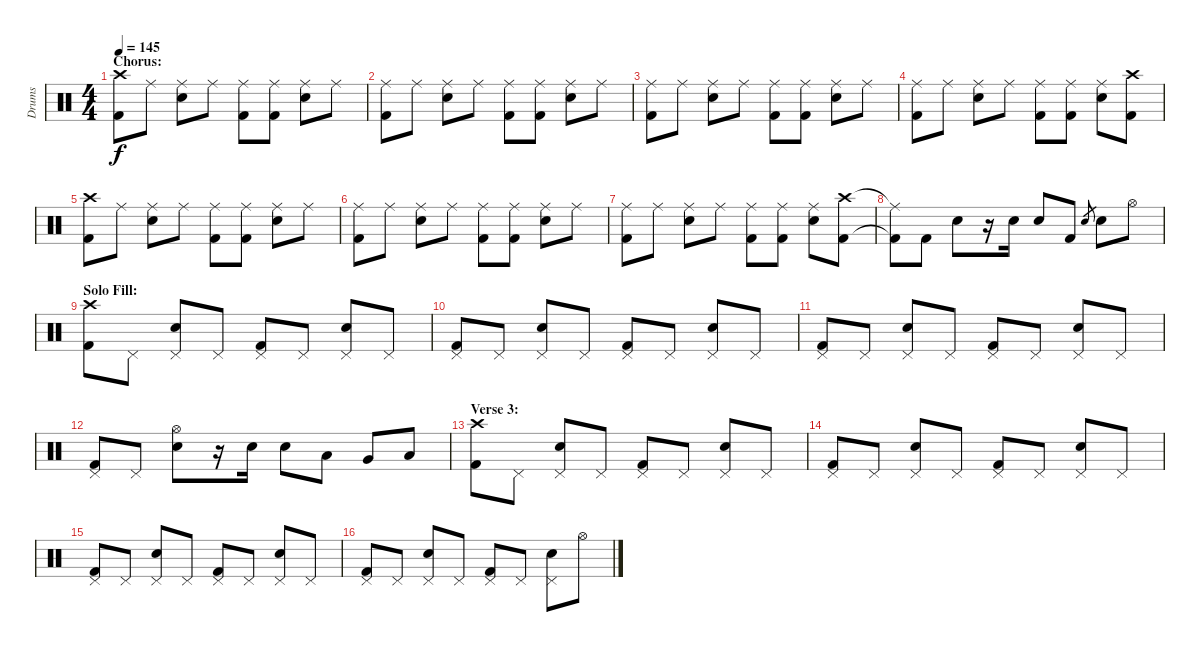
\track ("Drums" "Drums") {instrument percussion}
\staff {score}
\articulation defaults
\ts (4 4)
\section ("" "Chorus:")
\tempo 145
\clef neutral
\ks c
("Crash high (hit)" "Kick (hit) 2").8{dy f} "Ride (middle)".8 ("Ride (middle)" "Electric Snare (hit)").8 "Ride (middle)".8 ("Ride (middle)" "Kick (hit) 2").8 ("Ride (middle)" "Kick (hit) 2").8 ("Ride (middle)" "Electric Snare (hit)").8 "Ride (middle)".8 |
("Ride (middle)" "Kick (hit) 2").8 "Ride (middle)".8 ("Ride (middle)" "Electric Snare (hit)").8 "Ride (middle)".8 ("Ride (middle)" "Kick (hit) 2").8 ("Ride (middle)" "Kick (hit) 2").8 ("Ride (middle)" "Electric Snare (hit)").8 "Ride (middle)".8 |
("Ride (middle)" "Kick (hit) 2").8 "Ride (middle)".8 ("Ride (middle)" "Electric Snare (hit)").8 "Ride (middle)".8 ("Ride (middle)" "Kick (hit) 2").8 ("Ride (middle)" "Kick (hit) 2").8 ("Ride (middle)" "Electric Snare (hit)").8 "Ride (middle)".8 |
("Ride (middle)" "Kick (hit) 2").8 "Ride (middle)".8 ("Ride (middle)" "Electric Snare (hit)").8 "Ride (middle)".8 ("Ride (middle)" "Kick (hit) 2").8 ("Ride (middle)" "Kick (hit) 2").8 ("Ride (middle)" "Electric Snare (hit)").8 ("Crash high (hit)" "Kick (hit) 2").8 |
("Crash high (hit)" "Kick (hit) 2").8 "Ride (middle)".8 ("Ride (middle)" "Electric Snare (hit)").8 "Ride (middle)".8 ("Ride (middle)" "Kick (hit) 2").8 ("Ride (middle)" "Kick (hit) 2").8 ("Ride (middle)" "Electric Snare (hit)").8 "Ride (middle)".8 |
("Ride (middle)" "Kick (hit) 2").8 "Ride (middle)".8 ("Ride (middle)" "Electric Snare (hit)").8 "Ride (middle)".8 ("Ride (middle)" "Kick (hit) 2").8 ("Ride (middle)" "Kick (hit) 2").8 ("Ride (middle)" "Electric Snare (hit)").8 "Ride (middle)".8 |
("Ride (middle)" "Kick (hit) 2").8 "Ride (middle)".8 ("Ride (middle)" "Electric Snare (hit)").8 "Ride (middle)".8 ("Ride (middle)" "Kick (hit) 2").8 ("Ride (middle)" "Kick (hit) 2").8 ("Ride (middle)" "Electric Snare (hit)").8 ("Crash high (hit)" "Kick (hit) 2").8 |
("Ride (middle)"{t} "Kick (hit) 2"{t}).8 "Kick (hit) 2".8 "Electric Snare (hit)".8 r.16 "Electric Snare (hit)".16 "Electric Snare (hit)".8 "Kick (hit) 2".8 "Electric Snare (hit)".8{gr} "Electric Snare (hit)".8 "Hi-Hat (open)".8 |
\section ("" "Solo Fill:")
("Crash high (hit)" "Kick (hit) 2").8 "Pedal Hi-Hat (hit)".8 ("Pedal Hi-Hat (hit)" "Electric Snare (hit)").8 "Pedal Hi-Hat (hit)".8 ("Pedal Hi-Hat (hit)" "Kick (hit) 2").8 "Pedal Hi-Hat (hit)".8 ("Pedal Hi-Hat (hit)" "Electric Snare (hit)").8 "Pedal Hi-Hat (hit)".8 |
("Pedal Hi-Hat (hit)" "Kick (hit) 2").8 "Pedal Hi-Hat (hit)".8 ("Pedal Hi-Hat (hit)" "Electric Snare (hit)").8 "Pedal Hi-Hat (hit)".8 ("Pedal Hi-Hat (hit)" "Kick (hit) 2").8 "Pedal Hi-Hat (hit)".8 ("Pedal Hi-Hat (hit)" "Electric Snare (hit)").8 "Pedal Hi-Hat (hit)".8 |
("Pedal Hi-Hat (hit)" "Kick (hit) 2").8 "Pedal Hi-Hat (hit)".8 ("Pedal Hi-Hat (hit)" "Electric Snare (hit)").8 "Pedal Hi-Hat (hit)".8 ("Pedal Hi-Hat (hit)" "Kick (hit) 2").8 "Pedal Hi-Hat (hit)".8 ("Pedal Hi-Hat (hit)" "Electric Snare (hit)").8 "Pedal Hi-Hat (hit)".8 |
("Pedal Hi-Hat (hit)" "Kick (hit) 2").8 "Pedal Hi-Hat (hit)".8 ("Hi-Hat (open)" "Electric Snare (hit)").8 r.16 "Electric Snare (hit)".16 "Electric Snare (hit)".8 "Low Tom (hit)".8 "Very Low Tom (hit)".8 "Low Floor Tom (hit)".8 |
\section ("" "Verse 3:")
("Crash high (hit)" "Kick (hit) 2").8 "Pedal Hi-Hat (hit)".8 ("Pedal Hi-Hat (hit)" "Electric Snare (hit)").8 "Pedal Hi-Hat (hit)".8 ("Pedal Hi-Hat (hit)" "Kick (hit) 2").8 "Pedal Hi-Hat (hit)".8 ("Pedal Hi-Hat (hit)" "Electric Snare (hit)").8 "Pedal Hi-Hat (hit)".8 |
("Pedal Hi-Hat (hit)" "Kick (hit) 2").8 "Pedal Hi-Hat (hit)".8 ("Pedal Hi-Hat (hit)" "Electric Snare (hit)").8 "Pedal Hi-Hat (hit)".8 ("Pedal Hi-Hat (hit)" "Kick (hit) 2").8 "Pedal Hi-Hat (hit)".8 ("Pedal Hi-Hat (hit)" "Electric Snare (hit)").8 "Pedal Hi-Hat (hit)".8 |
("Pedal Hi-Hat (hit)" "Kick (hit) 2").8 "Pedal Hi-Hat (hit)".8 ("Pedal Hi-Hat (hit)" "Electric Snare (hit)").8 "Pedal Hi-Hat (hit)".8 ("Pedal Hi-Hat (hit)" "Kick (hit) 2").8 "Pedal Hi-Hat (hit)".8 ("Pedal Hi-Hat (hit)" "Electric Snare (hit)").8 "Pedal Hi-Hat (hit)".8 |
("Pedal Hi-Hat (hit)" "Kick (hit) 2").8 "Pedal Hi-Hat (hit)".8 ("Pedal Hi-Hat (hit)" "Electric Snare (hit)").8 "Pedal Hi-Hat (hit)".8 ("Pedal Hi-Hat (hit)" "Kick (hit) 2").8 "Pedal Hi-Hat (hit)".8 ("Pedal Hi-Hat (hit)" "Electric Snare (hit)").8 "Hi-Hat (open)".8
